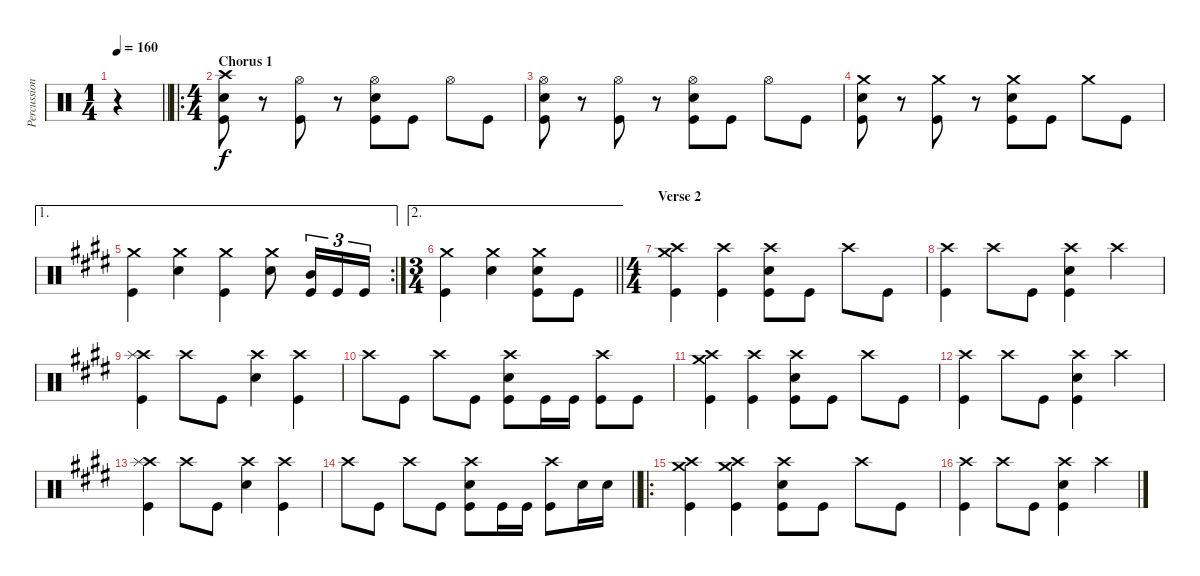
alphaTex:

\track ("Percussion" "Percussion") {instrument percussion}
\staff {score}
\articulation defaults
\ts (1 4)
\tempo 160
\clef neutral
\barLineRight lightlight
\ks c
r.4{dy f} |
\ro
\ts (4 4)
\section ("" "Chorus 1")
("Crash high (hit)" "Electric Snare (hit)" "Kick (hit)").8 r.8 ("Hi-Hat (open)" "Kick (hit)").8 r.8 ("Hi-Hat (open)" "Electric Snare (hit)" "Kick (hit)").8 "Kick (hit)".8 "Hi-Hat (open)".8 "Kick (hit)".8 |
("Hi-Hat (open)" "Electric Snare (hit)" "Kick (hit)").8 r.8 ("Hi-Hat (open)" "Kick (hit)").8 r.8 ("Hi-Hat (open)" "Electric Snare (hit)" "Kick (hit)").8 "Kick (hit)".8 "Hi-Hat (open)".8 "Kick (hit)".8 |
("Crash medium (hit)" "Electric Snare (hit)" "Kick (hit)").8 r.8 ("Crash medium (hit)" "Kick (hit)").8 r.8 ("Crash medium (hit)" "Electric Snare (hit)" "Kick (hit)").8 "Kick (hit)".8 "Crash medium (hit)".8 "Kick (hit)".8 |
\ae 1
\rc 2
\ks e
("Crash medium (hit)" "Kick (hit)").4 ("Crash medium (hit)" "Electric Snare (hit)").4 ("Crash medium (hit)" "Kick (hit)").4 ("Crash medium (hit)" "Electric Snare (hit)").8 ("Mid Tom (hit)" "Kick (hit)").16{tu (3 2)} "Kick (hit)".16{tu (3 2)} "Kick (hit)".16{tu (3 2)} |
\ae 2
\ts (3 4)
\barLineRight lightlight
("Crash medium (hit)" "Kick (hit)").4 ("Crash medium (hit)" "Electric Snare (hit)").4 ("Crash medium (hit)" "Electric Snare (hit)" "Kick (hit)").8 "Kick (hit)".8 |
\ts (4 4)
\section ("" "Verse 2")
("Crash high (hit)" "Crash medium (hit)" "Kick (hit)").4 ("Crash high (hit)" "Kick (hit)").4 ("Crash high (hit)" "Electric Snare (hit)" "Kick (hit)").8 "Kick (hit)".8 "Crash high (hit)".8 "Kick (hit)".8 |
("Crash high (hit)" "Kick (hit)").4 "Crash high (hit)".8 "Kick (hit)".8 ("Crash high (hit)" "Electric Snare (hit)" "Kick (hit)").4 "Crash high (hit)".4 |
("Crash high (hit)" "Splash (hit)" "Kick (hit)").4 "Crash high (hit)".8 "Kick (hit)".8 ("Crash high (hit)" "Electric Snare (hit)").4 ("Crash high (hit)" "Kick (hit)").4 |
"Crash high (hit)".8 "Kick (hit)".8 "Crash high (hit)".8 "Kick (hit)".8 ("Crash high (hit)" "Electric Snare (hit)" "Kick (hit)").8 "Kick (hit)".16 "Kick (hit)".16 ("Crash high (hit)" "Kick (hit)").8 "Kick (hit)".8 |
("Crash high (hit)" "Crash medium (hit)" "Kick (hit)").4 ("Crash high (hit)" "Kick (hit)").4 ("Crash high (hit)" "Electric Snare (hit)" "Kick (hit)").8 "Kick (hit)".8 "Crash high (hit)".8 "Kick (hit)".8 |
("Crash high (hit)" "Kick (hit)").4 "Crash high (hit)".8 "Kick (hit)".8 ("Crash high (hit)" "Electric Snare (hit)" "Kick (hit)").4 "Crash high (hit)".4 |
("Crash high (hit)" "Splash (hit)" "Kick (hit)").4 "Crash high (hit)".8 "Kick (hit)".8 ("Crash high (hit)" "Electric Snare (hit)").4 ("Crash high (hit)" "Kick (hit)").4 |
\barLineRight lightlight "Crash high (hit)".8 "Kick (hit)".8 "Crash high (hit)".8 "Kick (hit)".8
("Crash high (hit)" "Electric Snare (hit)" "Kick (hit)").8 "Kick (hit)".16 "Kick (hit)".16 ("Crash high (hit)" "Kick (hit)").8 "Electric Snare (hit)".16 "Electric Snare (hit)".16 |
\ro
("Crash high (hit)" "Crash medium (hit)" "Kick (hit)").4 ("Crash high (hit)" "Crash medium (hit)" "Kick (hit)").4 ("Crash high (hit)" "Electric Snare (hit)" "Kick (hit)").8 "Kick (hit)".8 "Crash high (hit)".8 "Kick (hit)".8 |
("Crash high (hit)" "Kick (hit)").4 "Crash high (hit)".8 "Kick (hit)".8 ("Crash high (hit)" "Electric Snare (hit)" "Kick (hit)").4 "Crash high (hit)".4
